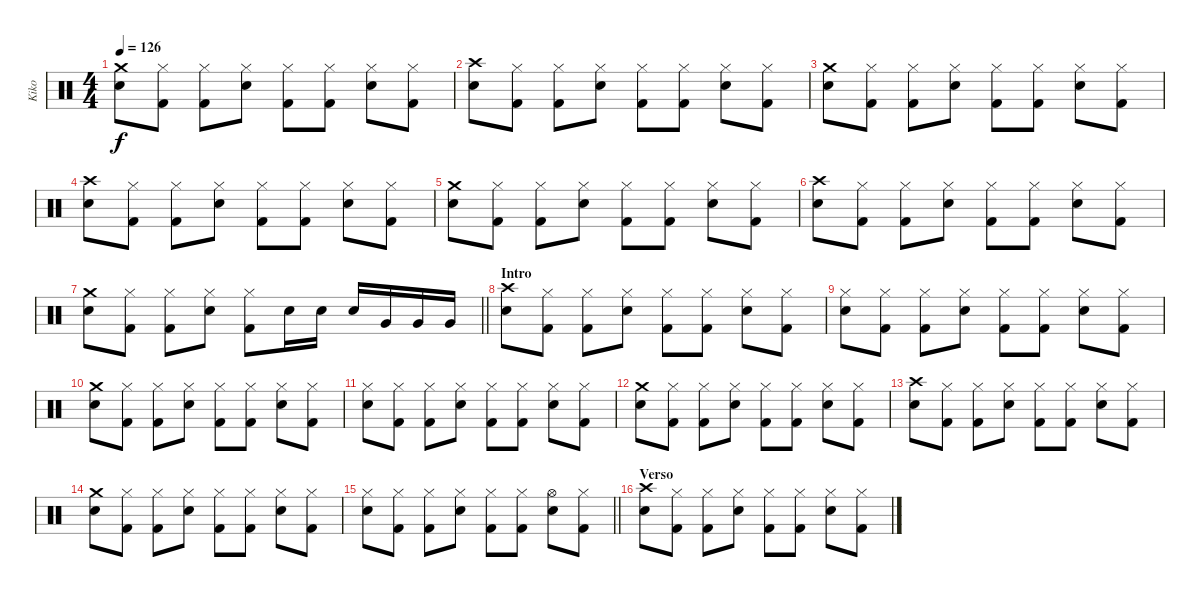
\track ("Kiko" "Kiko") {instrument percussion}
\staff {score}
\articulation defaults
\ts (4 4)
\tempo 126
\clef neutral
\ks c
("Crash medium (hit)" "Electric Snare (hit)").8{dy f} ("Hi-Hat (closed)" "Kick (hit) 2").8 ("Hi-Hat (closed)" "Kick (hit) 2").8 ("Hi-Hat (closed)" "Electric Snare (hit)").8 ("Hi-Hat (closed)" "Kick (hit) 2").8 ("Hi-Hat (closed)" "Kick (hit) 2").8 ("Hi-Hat (closed)" "Electric Snare (hit)").8 ("Hi-Hat (closed)" "Kick (hit) 2").8 |
("Crash high (hit)" "Electric Snare (hit)").8 ("Hi-Hat (closed)" "Kick (hit) 2").8 ("Hi-Hat (closed)" "Kick (hit) 2").8 ("Hi-Hat (closed)" "Electric Snare (hit)").8 ("Hi-Hat (closed)" "Kick (hit) 2").8 ("Hi-Hat (closed)" "Kick (hit) 2").8 ("Hi-Hat (closed)" "Electric Snare (hit)").8 ("Hi-Hat (closed)" "Kick (hit) 2").8 |
("Crash medium (hit)" "Electric Snare (hit)").8 ("Hi-Hat (closed)" "Kick (hit) 2").8 ("Hi-Hat (closed)" "Kick (hit) 2").8 ("Hi-Hat (closed)" "Electric Snare (hit)").8 ("Hi-Hat (closed)" "Kick (hit) 2").8 ("Hi-Hat (closed)" "Kick (hit) 2").8 ("Hi-Hat (closed)" "Electric Snare (hit)").8 ("Hi-Hat (closed)" "Kick (hit) 2").8 |
("Crash high (hit)" "Electric Snare (hit)").8 ("Hi-Hat (closed)" "Kick (hit) 2").8 ("Hi-Hat (closed)" "Kick (hit) 2").8 ("Hi-Hat (closed)" "Electric Snare (hit)").8 ("Hi-Hat (closed)" "Kick (hit) 2").8 ("Hi-Hat (closed)" "Kick (hit) 2").8 ("Hi-Hat (closed)" "Electric Snare (hit)").8 ("Hi-Hat (closed)" "Kick (hit) 2").8 |
("Crash medium (hit)" "Electric Snare (hit)").8 ("Hi-Hat (closed)" "Kick (hit) 2").8 ("Hi-Hat (closed)" "Kick (hit) 2").8 ("Hi-Hat (closed)" "Electric Snare (hit)").8 ("Hi-Hat (closed)" "Kick (hit) 2").8 ("Hi-Hat (closed)" "Kick (hit) 2").8 ("Hi-Hat (closed)" "Electric Snare (hit)").8 ("Hi-Hat (closed)" "Kick (hit) 2").8 |
("Crash high (hit)" "Electric Snare (hit)").8 ("Hi-Hat (closed)" "Kick (hit) 2").8 ("Hi-Hat (closed)" "Kick (hit) 2").8 ("Hi-Hat (closed)" "Electric Snare (hit)").8 ("Hi-Hat (closed)" "Kick (hit) 2").8 ("Hi-Hat (closed)" "Kick (hit) 2").8 ("Hi-Hat (closed)" "Electric Snare (hit)").8 ("Hi-Hat (closed)" "Kick (hit) 2").8 |
\barLineRight lightlight
("Crash medium (hit)" "Electric Snare (hit)").8 ("Hi-Hat (closed)" "Kick (hit) 2").8 ("Hi-Hat (closed)" "Kick (hit) 2").8 ("Hi-Hat (closed)" "Electric Snare (hit)").8 ("Hi-Hat (closed)" "Kick (hit) 2").8 "Electric Snare (hit)".16 "Electric Snare (hit)".16 "Electric Snare (hit)".16 "Very Low Tom (hit)".16 "Very Low Tom (hit)".16 "Very Low Tom (hit)".16 |
\section ("" "Intro")
("Crash high (hit)" "Electric Snare (hit)").8 ("Hi-Hat (closed)" "Kick (hit) 2").8 ("Hi-Hat (closed)" "Kick (hit) 2").8 ("Hi-Hat (closed)" "Electric Snare (hit)").8 ("Hi-Hat (closed)" "Kick (hit) 2").8 ("Hi-Hat (closed)" "Kick (hit) 2").8 ("Hi-Hat (closed)" "Electric Snare (hit)").8 ("Hi-Hat (closed)" "Kick (hit) 2").8 |
("Hi-Hat (closed)" "Electric Snare (hit)").8 ("Hi-Hat (closed)" "Kick (hit) 2").8 ("Hi-Hat (closed)" "Kick (hit) 2").8 ("Hi-Hat (closed)" "Electric Snare (hit)").8 ("Hi-Hat (closed)" "Kick (hit) 2").8 ("Hi-Hat (closed)" "Kick (hit) 2").8 ("Hi-Hat (closed)" "Electric Snare (hit)").8 ("Hi-Hat (closed)" "Kick (hit) 2").8 |
("Crash medium (hit)" "Electric Snare (hit)").8 ("Hi-Hat (closed)" "Kick (hit) 2").8 ("Hi-Hat (closed)" "Kick (hit) 2").8 ("Hi-Hat (closed)" "Electric Snare (hit)").8 ("Hi-Hat (closed)" "Kick (hit) 2").8 ("Hi-Hat (closed)" "Kick (hit) 2").8 ("Hi-Hat (closed)" "Electric Snare (hit)").8 ("Hi-Hat (closed)" "Kick (hit) 2").8 |
("Hi-Hat (closed)" "Electric Snare (hit)").8 ("Hi-Hat (closed)" "Kick (hit) 2").8 ("Hi-Hat (closed)" "Kick (hit) 2").8 ("Hi-Hat (closed)" "Electric Snare (hit)").8 ("Hi-Hat (closed)" "Kick (hit) 2").8 ("Hi-Hat (closed)" "Kick (hit) 2").8 ("Hi-Hat (closed)" "Electric Snare (hit)").8 ("Hi-Hat (closed)" "Kick (hit) 2").8 |
("Crash medium (hit)" "Electric Snare (hit)").8 ("Hi-Hat (closed)" "Kick (hit) 2").8 ("Hi-Hat (closed)" "Kick (hit) 2").8 ("Hi-Hat (closed)" "Electric Snare (hit)").8 ("Hi-Hat (closed)" "Kick (hit) 2").8 ("Hi-Hat (closed)" "Kick (hit) 2").8 ("Hi-Hat (closed)" "Electric Snare (hit)").8 ("Hi-Hat (closed)" "Kick (hit) 2").8 |
("Crash high (hit)" "Electric Snare (hit)").8 ("Hi-Hat (closed)" "Kick (hit) 2").8 ("Hi-Hat (closed)" "Kick (hit) 2").8 ("Hi-Hat (closed)" "Electric Snare (hit)").8 ("Hi-Hat (closed)" "Kick (hit) 2").8 ("Hi-Hat (closed)" "Kick (hit) 2").8 ("Hi-Hat (closed)" "Electric Snare (hit)").8 ("Hi-Hat (closed)" "Kick (hit) 2").8 |
("Crash medium (hit)" "Electric Snare (hit)").8 ("Hi-Hat (closed)" "Kick (hit) 2").8 ("Hi-Hat (closed)" "Kick (hit) 2").8 ("Hi-Hat (closed)" "Electric Snare (hit)").8 ("Hi-Hat (closed)" "Kick (hit) 2").8 ("Hi-Hat (closed)" "Kick (hit) 2").8 ("Hi-Hat (closed)" "Electric Snare (hit)").8 ("Hi-Hat (closed)" "Kick (hit) 2").8 |
\barLineRight lightlight
("Hi-Hat (closed)" "Electric Snare (hit)").8 ("Hi-Hat (closed)" "Kick (hit) 2").8 ("Hi-Hat (closed)" "Kick (hit) 2").8 ("Hi-Hat (closed)" "Electric Snare (hit)").8 ("Hi-Hat (closed)" "Kick (hit) 2").8 ("Hi-Hat (closed)" "Kick (hit) 2").8 ("Hi-Hat (open)" "Electric Snare (hit)").8 ("Hi-Hat (closed)" "Kick (hit) 2").8 |
\section ("" "Verso")
("Crash high (hit)" "Electric Snare (hit)").8 ("Hi-Hat (closed)" "Kick (hit) 2").8 ("Hi-Hat (closed)" "Kick (hit) 2").8 ("Hi-Hat (closed)" "Electric Snare (hit)").8 ("Hi-Hat (closed)" "Kick (hit) 2").8 ("Hi-Hat (closed)" "Kick (hit) 2").8 ("Hi-Hat (closed)" "Electric Snare (hit)").8 ("Hi-Hat (closed)" "Kick (hit) 2").8
